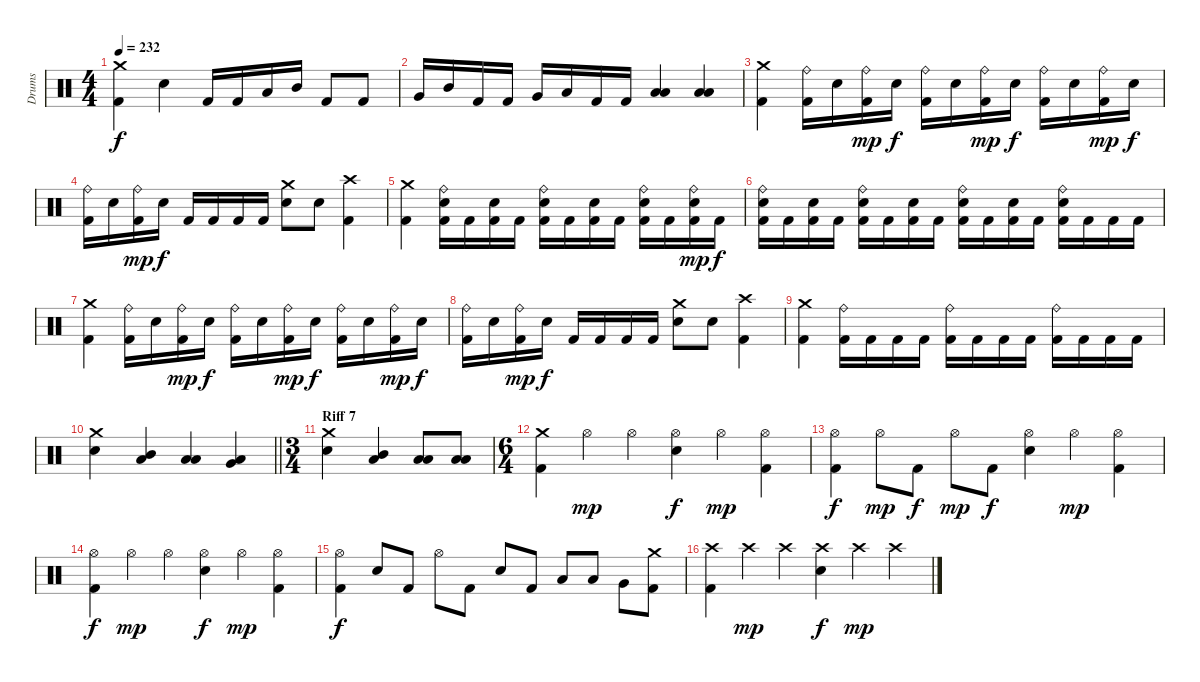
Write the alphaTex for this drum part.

\track ("Drums" "Drums") {instrument percussion}
\staff {score}
\articulation defaults
\ts (4 4)
\tempo 232
\clef neutral
\ks c
("Crash medium (hit)" "Kick (hit) 2").4{dy f} "Electric Snare (hit)".4 "Kick (hit) 2".16 "Kick (hit) 2".16 "Low Tom (hit)".16 "Mid Tom (hit)".16 "Kick (hit) 2".8 "Kick (hit) 2".8 |
"Very Low Tom (hit)".16 "Mid Tom (hit)".16 "Kick (hit) 2".16 "Kick (hit) 2".16 "Very Low Tom (hit)".16 "Low Tom (hit)".16 "Kick (hit) 2".16 "Kick (hit) 2".16 ("Low Tom (hit)" "Low Floor Tom (hit)").4 ("Low Tom (hit)" "Low Floor Tom (hit)").4 |
("Crash medium (hit)" "Kick (hit) 2").4 ("Ride (bell)" "Kick (hit) 2").16 "Electric Snare (hit)".16 ("Ride (bell)" "Kick (hit) 2").16{dy mp} "Electric Snare (hit)".16{dy f} ("Ride (bell)" "Kick (hit) 2").16 "Electric Snare (hit)".16 ("Ride (bell)" "Kick (hit) 2").16{dy mp} "Electric Snare (hit)".16{dy f} ("Ride (bell)" "Kick (hit) 2").16 "Electric Snare (hit)".16 ("Ride (bell)" "Kick (hit) 2").16{dy mp} "Electric Snare (hit)".16{dy f} |
("Ride (bell)" "Kick (hit) 2").16 "Electric Snare (hit)".16 ("Ride (bell)" "Kick (hit) 2").16{dy mp} "Electric Snare (hit)".16{dy f} "Kick (hit) 2".16 "Kick (hit) 2".16 "Kick (hit) 2".16 "Kick (hit) 2".16 ("Crash medium (hit)" "Electric Snare (hit)").8 "Electric Snare (hit)".8 ("Crash high (hit)" "Kick (hit) 2").4 |
("Crash medium (hit)" "Kick (hit) 2").4 ("Kick (hit) 2" "Electric Snare (hit)" "Ride (bell)").16 "Kick (hit) 2".16 ("Kick (hit) 2" "Electric Snare (hit)").16 "Kick (hit) 2".16 ("Kick (hit) 2" "Electric Snare (hit)" "Ride (bell)").16 "Kick (hit) 2".16 ("Kick (hit) 2" "Electric Snare (hit)").16 "Kick (hit) 2".16 ("Kick (hit) 2" "Electric Snare (hit)" "Ride (bell)").16 "Kick (hit) 2".16 ("Kick (hit) 2" "Electric Snare (hit)" "Ride (bell)").16{dy mp} "Kick (hit) 2".16{dy f} |
("Kick (hit) 2" "Electric Snare (hit)" "Ride (bell)").16 "Kick (hit) 2".16 ("Kick (hit) 2" "Electric Snare (hit)").16 "Kick (hit) 2".16 ("Kick (hit) 2" "Electric Snare (hit)" "Ride (bell)").16 "Kick (hit) 2".16 ("Kick (hit) 2" "Electric Snare (hit)").16 "Kick (hit) 2".16 ("Kick (hit) 2" "Electric Snare (hit)" "Ride (bell)").16 "Kick (hit) 2".16 ("Kick (hit) 2" "Electric Snare (hit)").16 "Kick (hit) 2".16 ("Kick (hit) 2" "Electric Snare (hit)" "Ride (bell)").16 "Kick (hit) 2".16 "Kick (hit) 2".16 "Kick (hit) 2".16 |
("Crash medium (hit)" "Kick (hit) 2").4 ("Ride (bell)" "Kick (hit) 2").16 "Electric Snare (hit)".16 ("Ride (bell)" "Kick (hit) 2").16{dy mp} "Electric Snare (hit)".16{dy f} ("Ride (bell)" "Kick (hit) 2").16 "Electric Snare (hit)".16 ("Ride (bell)" "Kick (hit) 2").16{dy mp} "Electric Snare (hit)".16{dy f} ("Ride (bell)" "Kick (hit) 2").16 "Electric Snare (hit)".16 ("Ride (bell)" "Kick (hit) 2").16{dy mp} "Electric Snare (hit)".16{dy f} |
("Ride (bell)" "Kick (hit) 2").16 "Electric Snare (hit)".16 ("Ride (bell)" "Kick (hit) 2").16{dy mp} "Electric Snare (hit)".16{dy f} "Kick (hit) 2".16 "Kick (hit) 2".16 "Kick (hit) 2".16 "Kick (hit) 2".16 ("Crash medium (hit)" "Electric Snare (hit)").8 "Electric Snare (hit)".8 ("Crash high (hit)" "Kick (hit) 2").4 |
("Crash medium (hit)" "Kick (hit) 2").4 ("Kick (hit) 2" "Ride (bell)").16 "Kick (hit) 2".16 "Kick (hit) 2".16 "Kick (hit) 2".16 ("Kick (hit) 2" "Ride (bell)").16 "Kick (hit) 2".16 "Kick (hit) 2".16 "Kick (hit) 2".16 ("Kick (hit) 2" "Ride (bell)").16 "Kick (hit) 2".16 "Kick (hit) 2".16 "Kick (hit) 2".16 |
\barLineRight lightlight
("Electric Snare (hit)" "Crash medium (hit)").4 ("Mid Tom (hit)" "Low Floor Tom (hit)").4 ("Low Tom (hit)" "Low Floor Tom (hit)").4 ("Very Low Tom (hit)" "Low Floor Tom (hit)").4 |
\ts (3 4)
\section ("" "Riff 7")
("Electric Snare (hit)" "Crash medium (hit)").4 ("Mid Tom (hit)" "Low Floor Tom (hit)").4 ("Low Tom (hit)" "Low Floor Tom (hit)").8 ("Low Tom (hit)" "Low Floor Tom (hit)").8 |
\ts (6 4)
("Crash medium (hit)" "Kick (hit) 2").4 "Hi-Hat (open)".4{dy mp} "Hi-Hat (open)".4 ("Hi-Hat (open)" "Electric Snare (hit)").4{dy f} "Hi-Hat (open)".4{dy mp} ("Kick (hit) 2" "Hi-Hat (open)").4 |
("Hi-Hat (open)" "Kick (hit) 2").4{dy f} "Hi-Hat (open)".8{dy mp} "Kick (hit) 2".8{dy f} "Hi-Hat (open)".8{dy mp} "Kick (hit) 2".8{dy f} ("Hi-Hat (open)" "Electric Snare (hit)").4 "Hi-Hat (open)".4{dy mp} ("Hi-Hat (open)" "Kick (hit) 2").4 |
("Hi-Hat (open)" "Kick (hit) 2").4{dy f} "Hi-Hat (open)".4{dy mp} "Hi-Hat (open)".4 ("Hi-Hat (open)" "Electric Snare (hit)").4{dy f} "Hi-Hat (open)".4{dy mp} ("Kick (hit) 2" "Hi-Hat (open)").4 |
("Hi-Hat (open)" "Kick (hit) 2").4{dy f} "Electric Snare (hit)".8 "Kick (hit) 2".8 "Hi-Hat (open)".8 "Kick (hit) 2".8 "Electric Snare (hit)".8 "Kick (hit) 2".8 "Low Tom (hit)".8 "Low Tom (hit)".8 "Very Low Tom (hit)".8 ("Crash medium (hit)" "Kick (hit) 2").8 |
("Kick (hit) 2" "Crash high (hit)").4 "Crash high (hit)".4{dy mp} "Crash high (hit)".4 ("Electric Snare (hit)" "Crash high (hit)").4{dy f} "Crash high (hit)".4{dy mp} "Crash high (hit)".4
